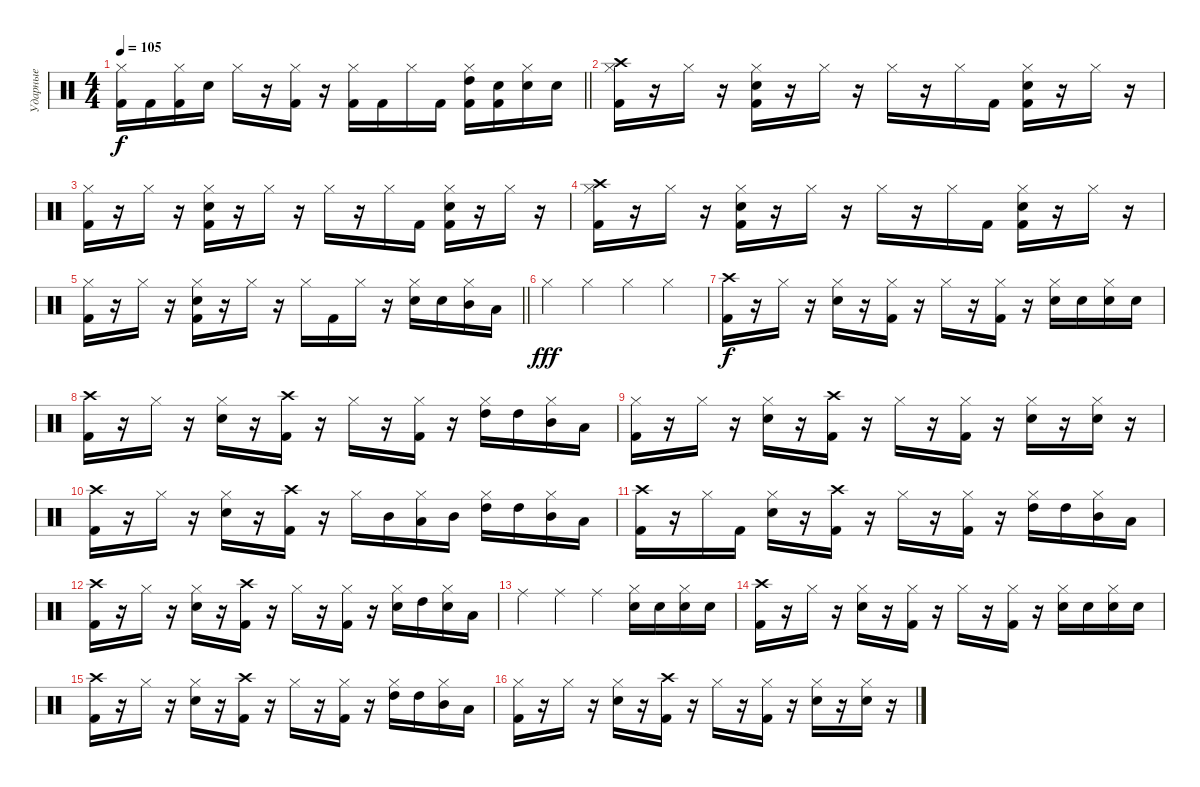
\track ("Ударные" "Ударные") {instrument percussion}
\staff {score}
\articulation defaults
\ts (4 4)
\tempo 105
\clef neutral
\barLineRight lightlight
\ks c
("Hi-Hat (closed)" "Kick (hit) 2").16{dy f} "Kick (hit) 2".16 ("Hi-Hat (closed)" "Kick (hit) 2").16 "Electric Snare (hit)".16 "Hi-Hat (closed)".16 r.16 ("Hi-Hat (closed)" "Kick (hit) 2").16 r.16 ("Hi-Hat (closed)" "Kick (hit) 2").16 "Kick (hit) 2".16 "Hi-Hat (closed)".16 "Kick (hit) 2".16 ("Hi-Hat (closed)" "Kick (hit) 2" "High Tom (hit)").16 ("Kick (hit) 2" "Electric Snare (hit)").16 ("Hi-Hat (closed)" "Electric Snare (hit)").16 "Electric Snare (hit)".16 |
("Hi-Hat (closed)" "Kick (hit) 2" "Crash high (hit)").16 r.16 "Hi-Hat (closed)".16 r.16 ("Hi-Hat (closed)" "Kick (hit) 2" "Electric Snare (hit)").16 r.16 "Hi-Hat (closed)".16 r.16 "Hi-Hat (closed)".16 r.16 "Hi-Hat (closed)".16 "Kick (hit) 2".16 ("Hi-Hat (closed)" "Kick (hit) 2" "Electric Snare (hit)").16 r.16 "Hi-Hat (closed)".16 r.16 |
("Hi-Hat (closed)" "Kick (hit) 2").16 r.16 "Hi-Hat (closed)".16 r.16 ("Hi-Hat (closed)" "Kick (hit) 2" "Electric Snare (hit)").16 r.16 "Hi-Hat (closed)".16 r.16 "Hi-Hat (closed)".16 r.16 "Hi-Hat (closed)".16 "Kick (hit) 2".16 ("Hi-Hat (closed)" "Kick (hit) 2" "Electric Snare (hit)").16 r.16 "Hi-Hat (closed)".16 r.16 |
("Hi-Hat (closed)" "Kick (hit) 2" "Crash high (hit)").16 r.16 "Hi-Hat (closed)".16 r.16 ("Hi-Hat (closed)" "Kick (hit) 2" "Electric Snare (hit)").16 r.16 "Hi-Hat (closed)".16 r.16 "Hi-Hat (closed)".16 r.16 "Hi-Hat (closed)".16 "Kick (hit) 2".16 ("Hi-Hat (closed)" "Kick (hit) 2" "Electric Snare (hit)").16 r.16 "Hi-Hat (closed)".16 r.16 |
\barLineRight lightlight
("Hi-Hat (closed)" "Kick (hit) 2").16 r.16 "Hi-Hat (closed)".16 r.16 ("Hi-Hat (closed)" "Kick (hit) 2" "Electric Snare (hit)").16 r.16 "Hi-Hat (closed)".16 r.16 "Hi-Hat (closed)".16 "Kick (hit) 2".16 "Hi-Hat (closed)".16 r.16 ("Hi-Hat (closed)" "Electric Snare (hit)").16 "Electric Snare (hit)".16 ("Hi-Hat (closed)" "Mid Tom (hit)").16 "Low Tom (hit)".16 |
"Hi-Hat (closed)".4{dy fff} "Hi-Hat (closed)".4 "Hi-Hat (closed)".4 "Hi-Hat (closed)".4 |
("Crash high (hit)" "Kick (hit) 2").16{dy f} r.16 "Hi-Hat (closed)".16 r.16 ("Hi-Hat (closed)" "Electric Snare (hit)").16 r.16 ("Hi-Hat (closed)" "Kick (hit) 2").16 r.16 "Hi-Hat (closed)".16 r.16 ("Hi-Hat (closed)" "Kick (hit) 2").16 r.16 ("Hi-Hat (closed)" "Electric Snare (hit)").16 "Electric Snare (hit)".16 ("Hi-Hat (closed)" "Electric Snare (hit)").16 "Electric Snare (hit)".16 |
("Crash high (hit)" "Kick (hit) 2").16 r.16 "Hi-Hat (closed)".16 r.16 ("Hi-Hat (closed)" "Electric Snare (hit)").16 r.16 ("Crash high (hit)" "Kick (hit) 2").16 r.16 "Hi-Hat (closed)".16 r.16 ("Hi-Hat (closed)" "Kick (hit) 2").16 r.16 ("Hi-Hat (closed)" "High Tom (hit)").16 "High Tom (hit)".16 ("Hi-Hat (closed)" "Mid Tom (hit)").16 "Low Tom (hit)".16 |
("Hi-Hat (closed)" "Kick (hit) 2").16 r.16 "Hi-Hat (closed)".16 r.16 ("Hi-Hat (closed)" "Electric Snare (hit)").16 r.16 ("Crash high (hit)" "Kick (hit) 2").16 r.16 "Hi-Hat (closed)".16 r.16 ("Hi-Hat (closed)" "Kick (hit) 2").16 r.16 ("Hi-Hat (closed)" "Electric Snare (hit)").16 r.16 ("Hi-Hat (closed)" "Electric Snare (hit)").16 r.16 |
("Crash high (hit)" "Kick (hit) 2").16 r.16 "Hi-Hat (closed)".16 r.16 ("Hi-Hat (closed)" "Electric Snare (hit)").16 r.16 ("Crash high (hit)" "Kick (hit) 2").16 r.16 "Hi-Hat (closed)".16 "Mid Tom (hit)".16 ("Hi-Hat (closed)" "Low Tom (hit)").16 "Mid Tom (hit)".16 ("Hi-Hat (closed)" "High Tom (hit)").16 "High Tom (hit)".16 ("Hi-Hat (closed)" "Mid Tom (hit)").16 "Low Tom (hit)".16 |
("Crash high (hit)" "Kick (hit) 2").16 r.16 "Hi-Hat (closed)".16 "Kick (hit) 2".16 ("Hi-Hat (closed)" "Electric Snare (hit)").16 r.16 ("Crash high (hit)" "Kick (hit) 2").16 r.16 "Hi-Hat (closed)".16 r.16 ("Hi-Hat (closed)" "Kick (hit) 2").16 r.16 ("Hi-Hat (closed)" "High Tom (hit)").16 "High Tom (hit)".16 ("Hi-Hat (closed)" "Mid Tom (hit)").16 "Low Tom (hit)".16 |
("Crash high (hit)" "Kick (hit) 2").16 r.16 "Hi-Hat (closed)".16 r.16 ("Hi-Hat (closed)" "Electric Snare (hit)").16 r.16 ("Crash high (hit)" "Kick (hit) 2").16 r.16 "Hi-Hat (closed)".16 r.16 ("Hi-Hat (closed)" "Kick (hit) 2").16 r.16 ("Hi-Hat (closed)" "Electric Snare (hit)").16 "High Tom (hit)".16 ("Hi-Hat (closed)" "Electric Snare (hit)").16 "Low Tom (hit)".16 |
"Ride (middle)".4 "Ride (middle)".4 "Ride (middle)".4 ("Hi-Hat (closed)" "Electric Snare (hit)").16 "Electric Snare (hit)".16 ("Hi-Hat (closed)" "Electric Snare (hit)").16 "Electric Snare (hit)".16 |
("Crash high (hit)" "Kick (hit) 2").16 r.16 "Hi-Hat (closed)".16 r.16 ("Hi-Hat (closed)" "Electric Snare (hit)").16 r.16 ("Hi-Hat (closed)" "Kick (hit) 2").16 r.16 "Hi-Hat (closed)".16 r.16 ("Hi-Hat (closed)" "Kick (hit) 2").16 r.16 ("Hi-Hat (closed)" "Electric Snare (hit)").16 "Electric Snare (hit)".16 ("Hi-Hat (closed)" "Electric Snare (hit)").16 "Electric Snare (hit)".16 |
("Crash high (hit)" "Kick (hit) 2").16 r.16 "Hi-Hat (closed)".16 r.16 ("Hi-Hat (closed)" "Electric Snare (hit)").16 r.16 ("Crash high (hit)" "Kick (hit) 2").16 r.16 "Hi-Hat (closed)".16 r.16 ("Hi-Hat (closed)" "Kick (hit) 2").16 r.16 ("Hi-Hat (closed)" "High Tom (hit)").16 "High Tom (hit)".16 ("Hi-Hat (closed)" "Mid Tom (hit)").16 "Low Tom (hit)".16 |
("Hi-Hat (closed)" "Kick (hit) 2").16 r.16 "Hi-Hat (closed)".16 r.16 ("Hi-Hat (closed)" "Electric Snare (hit)").16 r.16 ("Crash high (hit)" "Kick (hit) 2").16 r.16 "Hi-Hat (closed)".16 r.16 ("Hi-Hat (closed)" "Kick (hit) 2").16 r.16 ("Hi-Hat (closed)" "Electric Snare (hit)").16 r.16 ("Hi-Hat (closed)" "Electric Snare (hit)").16 r.16
